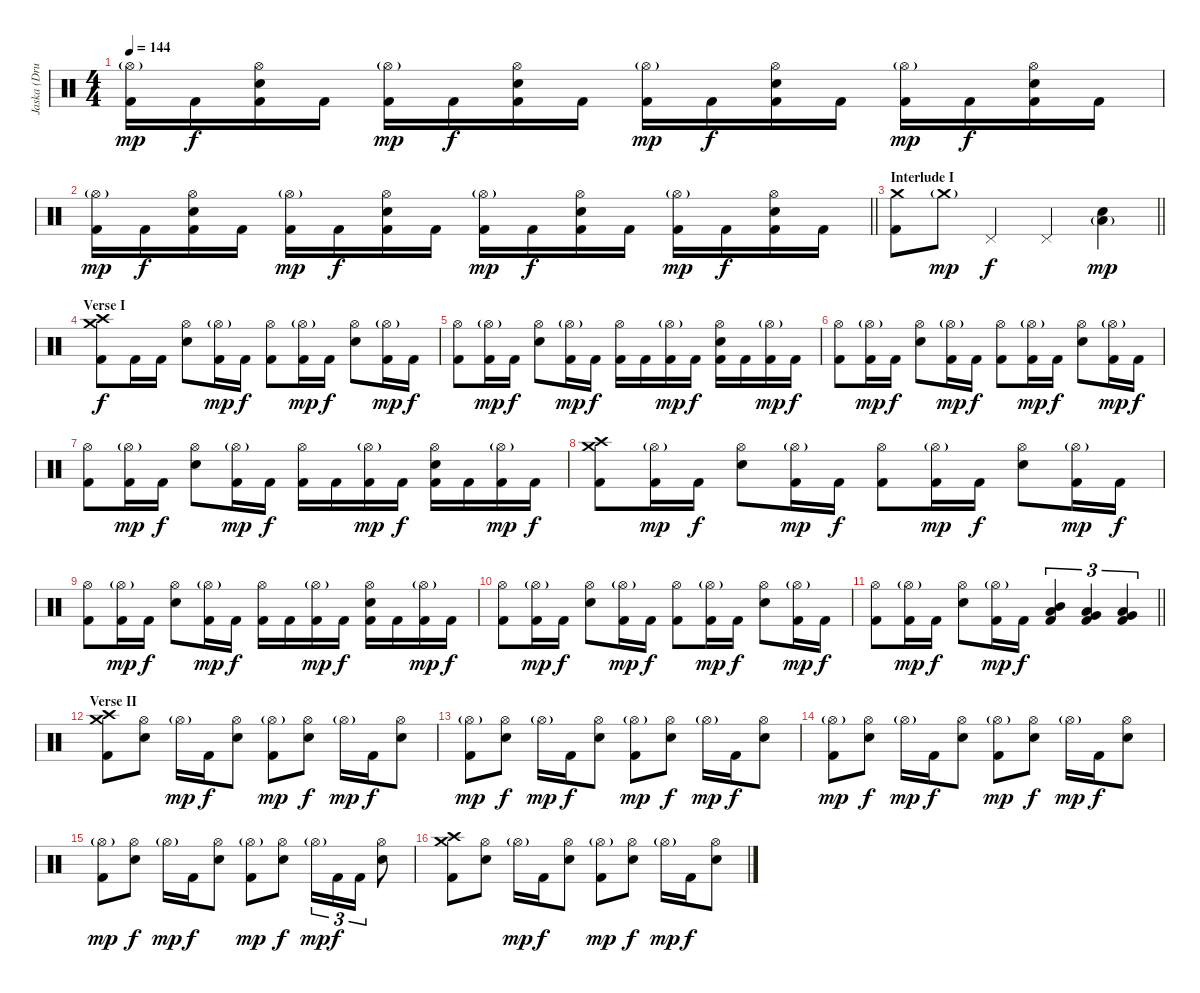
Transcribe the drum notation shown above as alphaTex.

\track ("Jaska (Drums)" "Jaska (Dru") {instrument percussion}
\staff {score}
\articulation defaults
\ts (4 4)
\tempo 144
\clef neutral
\ks c
("Hi-Hat (open)"{g} "Kick (hit) 2").16{dy mp} "Kick (hit) 2".16{dy f} ("Hi-Hat (open)" "Electric Snare (hit)" "Kick (hit) 2").16 "Kick (hit) 2".16 ("Hi-Hat (open)"{g} "Kick (hit) 2").16{dy mp} "Kick (hit) 2".16{dy f} ("Hi-Hat (open)" "Electric Snare (hit)" "Kick (hit) 2").16 "Kick (hit) 2".16 ("Hi-Hat (open)"{g} "Kick (hit) 2").16{dy mp} "Kick (hit) 2".16{dy f} ("Hi-Hat (open)" "Electric Snare (hit)" "Kick (hit) 2").16 "Kick (hit) 2".16 ("Hi-Hat (open)"{g} "Kick (hit) 2").16{dy mp} "Kick (hit) 2".16{dy f} ("Hi-Hat (open)" "Electric Snare (hit)" "Kick (hit) 2").16 "Kick (hit) 2".16 |
\barLineRight lightlight
("Hi-Hat (open)"{g} "Kick (hit) 2").16{dy mp} "Kick (hit) 2".16{dy f} ("Hi-Hat (open)" "Electric Snare (hit)" "Kick (hit) 2").16 "Kick (hit) 2".16 ("Hi-Hat (open)"{g} "Kick (hit) 2").16{dy mp} "Kick (hit) 2".16{dy f} ("Hi-Hat (open)" "Electric Snare (hit)" "Kick (hit) 2").16 "Kick (hit) 2".16 ("Hi-Hat (open)"{g} "Kick (hit) 2").16{dy mp} "Kick (hit) 2".16{dy f} ("Hi-Hat (open)" "Electric Snare (hit)" "Kick (hit) 2").16 "Kick (hit) 2".16 ("Hi-Hat (open)"{g} "Kick (hit) 2").16{dy mp} "Kick (hit) 2".16{dy f} ("Hi-Hat (open)" "Electric Snare (hit)" "Kick (hit) 2").16 "Kick (hit) 2".16 |
\section ("" "Interlude I")
\barLineRight lightlight
("Crash medium (hit)" "Kick (hit) 2").8 "Crash medium (hit)"{g}.8{dy mp volume 0} "Pedal Hi-Hat (hit)".4{dy f volume 6} "Pedal Hi-Hat (hit)".4 ("Low Floor Tom (hit)"{g} "Electric Snare (hit)").4{dy mp volume 16} |
\section ("" "Verse I")
("Crash medium (hit)" "Crash high (hit)" "Kick (hit) 2").8{dy f volume 14 balance 8} "Kick (hit) 2".16 "Kick (hit) 2".16 ("Hi-Hat (open)" "Electric Snare (hit)").8 ("Hi-Hat (open)"{g} "Kick (hit) 2").16{dy mp} "Kick (hit) 2".16{dy f} ("Hi-Hat (open)" "Kick (hit) 2").8 ("Hi-Hat (open)"{g} "Kick (hit) 2").16{dy mp} "Kick (hit) 2".16{dy f} ("Hi-Hat (open)" "Electric Snare (hit)").8 ("Hi-Hat (open)"{g} "Kick (hit) 2").16{dy mp} "Kick (hit) 2".16{dy f} |
("Hi-Hat (open)" "Kick (hit) 2").8 ("Hi-Hat (open)"{g} "Kick (hit) 2").16{dy mp} "Kick (hit) 2".16{dy f} ("Hi-Hat (open)" "Electric Snare (hit)").8 ("Hi-Hat (open)"{g} "Kick (hit) 2").16{dy mp} "Kick (hit) 2".16{dy f} ("Hi-Hat (open)" "Kick (hit) 2").16 "Kick (hit) 2".16 ("Hi-Hat (open)"{g} "Kick (hit) 2").16{dy mp} "Kick (hit) 2".16{dy f} ("Hi-Hat (open)" "Electric Snare (hit)" "Kick (hit) 2").16 "Kick (hit) 2".16 ("Hi-Hat (open)"{g} "Kick (hit) 2").16{dy mp} "Kick (hit) 2".16{dy f} |
("Hi-Hat (open)" "Kick (hit) 2").8 ("Hi-Hat (open)"{g} "Kick (hit) 2").16{dy mp} "Kick (hit) 2".16{dy f} ("Hi-Hat (open)" "Electric Snare (hit)").8 ("Hi-Hat (open)"{g} "Kick (hit) 2").16{dy mp} "Kick (hit) 2".16{dy f} ("Hi-Hat (open)" "Kick (hit) 2").8 ("Hi-Hat (open)"{g} "Kick (hit) 2").16{dy mp} "Kick (hit) 2".16{dy f} ("Hi-Hat (open)" "Electric Snare (hit)").8 ("Hi-Hat (open)"{g} "Kick (hit) 2").16{dy mp} "Kick (hit) 2".16{dy f} |
("Hi-Hat (open)" "Kick (hit) 2").8 ("Hi-Hat (open)"{g} "Kick (hit) 2").16{dy mp} "Kick (hit) 2".16{dy f} ("Hi-Hat (open)" "Electric Snare (hit)").8 ("Hi-Hat (open)"{g} "Kick (hit) 2").16{dy mp} "Kick (hit) 2".16{dy f} ("Hi-Hat (open)" "Kick (hit) 2").16 "Kick (hit) 2".16 ("Hi-Hat (open)"{g} "Kick (hit) 2").16{dy mp} "Kick (hit) 2".16{dy f} ("Hi-Hat (open)" "Electric Snare (hit)" "Kick (hit) 2").16 "Kick (hit) 2".16 ("Hi-Hat (open)"{g} "Kick (hit) 2").16{dy mp} "Kick (hit) 2".16{dy f} |
("Crash medium (hit)" "Crash high (hit)" "Kick (hit) 2").8 ("Hi-Hat (open)"{g} "Kick (hit) 2").16{dy mp} "Kick (hit) 2".16{dy f} ("Hi-Hat (open)" "Electric Snare (hit)").8 ("Hi-Hat (open)"{g} "Kick (hit) 2").16{dy mp} "Kick (hit) 2".16{dy f} ("Hi-Hat (open)" "Kick (hit) 2").8 ("Hi-Hat (open)"{g} "Kick (hit) 2").16{dy mp} "Kick (hit) 2".16{dy f} ("Hi-Hat (open)" "Electric Snare (hit)").8 ("Hi-Hat (open)"{g} "Kick (hit) 2").16{dy mp} "Kick (hit) 2".16{dy f} |
("Hi-Hat (open)" "Kick (hit) 2").8 ("Hi-Hat (open)"{g} "Kick (hit) 2").16{dy mp} "Kick (hit) 2".16{dy f} ("Hi-Hat (open)" "Electric Snare (hit)").8 ("Hi-Hat (open)"{g} "Kick (hit) 2").16{dy mp} "Kick (hit) 2".16{dy f} ("Hi-Hat (open)" "Kick (hit) 2").16 "Kick (hit) 2".16 ("Hi-Hat (open)"{g} "Kick (hit) 2").16{dy mp} "Kick (hit) 2".16{dy f} ("Hi-Hat (open)" "Electric Snare (hit)" "Kick (hit) 2").16 "Kick (hit) 2".16 ("Hi-Hat (open)"{g} "Kick (hit) 2").16{dy mp} "Kick (hit) 2".16{dy f} |
("Hi-Hat (open)" "Kick (hit) 2").8 ("Hi-Hat (open)"{g} "Kick (hit) 2").16{dy mp} "Kick (hit) 2".16{dy f} ("Hi-Hat (open)" "Electric Snare (hit)").8 ("Hi-Hat (open)"{g} "Kick (hit) 2").16{dy mp} "Kick (hit) 2".16{dy f} ("Hi-Hat (open)" "Kick (hit) 2").8 ("Hi-Hat (open)"{g} "Kick (hit) 2").16{dy mp} "Kick (hit) 2".16{dy f} ("Hi-Hat (open)" "Electric Snare (hit)").8 ("Hi-Hat (open)"{g} "Kick (hit) 2").16{dy mp} "Kick (hit) 2".16{dy f} |
\barLineRight lightlight
("Hi-Hat (open)" "Kick (hit) 2").8 ("Hi-Hat (open)"{g} "Kick (hit) 2").16{dy mp} "Kick (hit) 2".16{dy f} ("Hi-Hat (open)" "Electric Snare (hit)").8 ("Hi-Hat (open)"{g} "Kick (hit) 2").16{dy mp} "Kick (hit) 2".16{dy f} ("Mid Tom (hit)" "Low Tom (hit)" "Kick (hit) 2").4{tu (3 2)} ("Low Tom (hit)" "Very Low Tom (hit)" "Kick (hit) 2").4{tu (3 2)} ("Very Low Tom (hit)" "Low Floor Tom (hit)" "Kick (hit) 2").4{tu (3 2)} |
\section ("" "Verse II")
("Crash medium (hit)" "Crash high (hit)" "Kick (hit) 2").8 ("Hi-Hat (open)" "Electric Snare (hit)").8 "Hi-Hat (open)"{g}.16{dy mp} "Kick (hit) 2".16{dy f} ("Hi-Hat (open)" "Electric Snare (hit)").8 ("Hi-Hat (open)"{g} "Kick (hit) 2").8{dy mp} ("Hi-Hat (open)" "Electric Snare (hit)").8{dy f} "Hi-Hat (open)"{g}.16{dy mp} "Kick (hit) 2".16{dy f} ("Hi-Hat (open)" "Electric Snare (hit)").8 |
("Hi-Hat (open)"{g} "Kick (hit) 2").8{dy mp} ("Hi-Hat (open)" "Electric Snare (hit)").8{dy f} "Hi-Hat (open)"{g}.16{dy mp} "Kick (hit) 2".16{dy f} ("Hi-Hat (open)" "Electric Snare (hit)").8 ("Hi-Hat (open)"{g} "Kick (hit) 2").8{dy mp} ("Hi-Hat (open)" "Electric Snare (hit)").8{dy f} "Hi-Hat (open)"{g}.16{dy mp} "Kick (hit) 2".16{dy f} ("Hi-Hat (open)" "Electric Snare (hit)").8 |
("Hi-Hat (open)"{g} "Kick (hit) 2").8{dy mp} ("Hi-Hat (open)" "Electric Snare (hit)").8{dy f} "Hi-Hat (open)"{g}.16{dy mp} "Kick (hit) 2".16{dy f} ("Hi-Hat (open)" "Electric Snare (hit)").8 ("Hi-Hat (open)"{g} "Kick (hit) 2").8{dy mp} ("Hi-Hat (open)" "Electric Snare (hit)").8{dy f} "Hi-Hat (open)"{g}.16{dy mp} "Kick (hit) 2".16{dy f} ("Hi-Hat (open)" "Electric Snare (hit)").8 |
("Hi-Hat (open)"{g} "Kick (hit) 2").8{dy mp} ("Hi-Hat (open)" "Electric Snare (hit)").8{dy f} "Hi-Hat (open)"{g}.16{dy mp} "Kick (hit) 2".16{dy f} ("Hi-Hat (open)" "Electric Snare (hit)").8 ("Hi-Hat (open)"{g} "Kick (hit) 2").8{dy mp} ("Hi-Hat (open)" "Electric Snare (hit)").8{dy f} "Hi-Hat (open)"{g}.16{tu (3 2) dy mp} "Kick (hit) 2".16{tu (3 2) dy f} "Kick (hit) 2".16{tu (3 2)} ("Hi-Hat (open)" "Electric Snare (hit)").8 |
("Crash medium (hit)" "Crash high (hit)" "Kick (hit) 2").8 ("Hi-Hat (open)" "Electric Snare (hit)").8 "Hi-Hat (open)"{g}.16{dy mp} "Kick (hit) 2".16{dy f} ("Hi-Hat (open)" "Electric Snare (hit)").8 ("Hi-Hat (open)"{g} "Kick (hit) 2").8{dy mp} ("Hi-Hat (open)" "Electric Snare (hit)").8{dy f} "Hi-Hat (open)"{g}.16{dy mp} "Kick (hit) 2".16{dy f} ("Hi-Hat (open)" "Electric Snare (hit)").8
